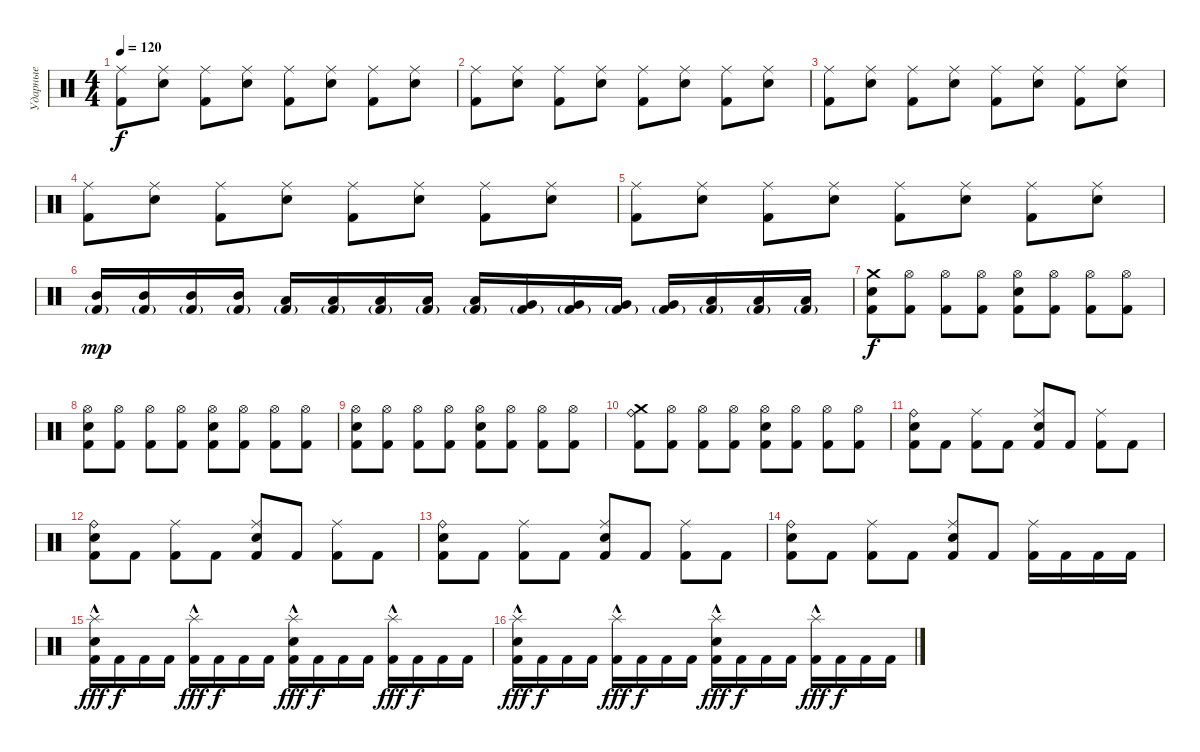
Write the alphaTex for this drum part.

\track ("Ударные" "Ударные") {instrument percussion}
\staff {score}
\articulation defaults
\ts (4 4)
\tempo 120
\clef neutral
\ks c
("Kick (hit) 2" "Ride (middle)").8{dy f} ("Electric Snare (hit)" "Ride (middle)").8 ("Kick (hit) 2" "Ride (middle)").8 ("Electric Snare (hit)" "Ride (middle)").8 ("Kick (hit) 2" "Ride (middle)").8 ("Electric Snare (hit)" "Ride (middle)").8 ("Kick (hit) 2" "Ride (middle)").8 ("Electric Snare (hit)" "Ride (middle)").8 |
("Kick (hit) 2" "Ride (middle)").8 ("Electric Snare (hit)" "Ride (middle)").8 ("Kick (hit) 2" "Ride (middle)").8 ("Electric Snare (hit)" "Ride (middle)").8 ("Kick (hit) 2" "Ride (middle)").8 ("Electric Snare (hit)" "Ride (middle)").8 ("Kick (hit) 2" "Ride (middle)").8 ("Electric Snare (hit)" "Ride (middle)").8 |
("Kick (hit) 2" "Ride (middle)").8 ("Electric Snare (hit)" "Ride (middle)").8 ("Kick (hit) 2" "Ride (middle)").8 ("Electric Snare (hit)" "Ride (middle)").8 ("Kick (hit) 2" "Ride (middle)").8 ("Electric Snare (hit)" "Ride (middle)").8 ("Kick (hit) 2" "Ride (middle)").8 ("Electric Snare (hit)" "Ride (middle)").8 |
("Kick (hit) 2" "Ride (middle)").8 ("Electric Snare (hit)" "Ride (middle)").8 ("Kick (hit) 2" "Ride (middle)").8 ("Electric Snare (hit)" "Ride (middle)").8 ("Kick (hit) 2" "Ride (middle)").8 ("Electric Snare (hit)" "Ride (middle)").8 ("Kick (hit) 2" "Ride (middle)").8 ("Electric Snare (hit)" "Ride (middle)").8 |
("Kick (hit) 2" "Ride (middle)").8 ("Electric Snare (hit)" "Ride (middle)").8 ("Kick (hit) 2" "Ride (middle)").8 ("Electric Snare (hit)" "Ride (middle)").8 ("Kick (hit) 2" "Ride (middle)").8 ("Electric Snare (hit)" "Ride (middle)").8 ("Kick (hit) 2" "Ride (middle)").8 ("Electric Snare (hit)" "Ride (middle)").8 |
("Mid Tom (hit)" "Kick (hit) 2"{g}).16{dy mp} ("Mid Tom (hit)" "Kick (hit) 2"{g}).16 ("Mid Tom (hit)" "Kick (hit) 2"{g}).16 ("Mid Tom (hit)" "Kick (hit) 2"{g}).16 ("Low Tom (hit)" "Kick (hit) 2"{g}).16 ("Low Tom (hit)" "Kick (hit) 2"{g}).16 ("Low Tom (hit)" "Kick (hit) 2"{g}).16 ("Low Tom (hit)" "Kick (hit) 2"{g}).16 ("Low Tom (hit)" "Kick (hit) 2"{g}).16 ("Very Low Tom (hit)" "Kick (hit) 2"{g}).16 ("Very Low Tom (hit)" "Kick (hit) 2"{g}).16 ("Very Low Tom (hit)" "Kick (hit) 2"{g}).16 ("Very Low Tom (hit)" "Kick (hit) 2"{g}).16 ("Low Floor Tom (hit)" "Kick (hit) 2"{g}).16 ("Low Floor Tom (hit)" "Kick (hit) 2"{g}).16 ("Low Floor Tom (hit)" "Kick (hit) 2"{g}).16 |
("Electric Snare (hit)" "Kick (hit) 2" "Crash medium (hit)").8{dy f} ("Kick (hit) 2" "Hi-Hat (open)").8 ("Kick (hit) 2" "Hi-Hat (open)").8 ("Kick (hit) 2" "Hi-Hat (open)").8 ("Electric Snare (hit)" "Kick (hit) 2" "Hi-Hat (open)").8 ("Kick (hit) 2" "Hi-Hat (open)").8 ("Kick (hit) 2" "Hi-Hat (open)").8 ("Kick (hit) 2" "Hi-Hat (open)").8 |
("Electric Snare (hit)" "Kick (hit) 2" "Hi-Hat (open)").8 ("Kick (hit) 2" "Hi-Hat (open)").8 ("Kick (hit) 2" "Hi-Hat (open)").8 ("Kick (hit) 2" "Hi-Hat (open)").8 ("Electric Snare (hit)" "Kick (hit) 2" "Hi-Hat (open)").8 ("Kick (hit) 2" "Hi-Hat (open)").8 ("Kick (hit) 2" "Hi-Hat (open)").8 ("Kick (hit) 2" "Hi-Hat (open)").8 |
("Electric Snare (hit)" "Kick (hit) 2" "Hi-Hat (open)").8 ("Kick (hit) 2" "Hi-Hat (open)").8 ("Kick (hit) 2" "Hi-Hat (open)").8 ("Kick (hit) 2" "Hi-Hat (open)").8 ("Electric Snare (hit)" "Kick (hit) 2" "Hi-Hat (open)").8 ("Kick (hit) 2" "Hi-Hat (open)").8 ("Kick (hit) 2" "Hi-Hat (open)").8 ("Kick (hit) 2" "Hi-Hat (open)").8 |
("Kick (hit) 2" "Crash medium (hit)" "Ride (bell)").8 ("Kick (hit) 2" "Hi-Hat (open)").8 ("Kick (hit) 2" "Hi-Hat (open)").8 ("Kick (hit) 2" "Hi-Hat (open)").8 ("Electric Snare (hit)" "Kick (hit) 2" "Hi-Hat (open)").8 ("Kick (hit) 2" "Hi-Hat (open)").8 ("Kick (hit) 2" "Hi-Hat (open)").8 ("Kick (hit) 2" "Hi-Hat (open)").8 |
("Electric Snare (hit)" "Kick (hit) 2" "Ride (bell)").8 "Kick (hit) 2".8 ("Kick (hit) 2" "Ride (middle)").8 "Kick (hit) 2".8 ("Electric Snare (hit)" "Kick (hit) 2" "Ride (middle)").8 "Kick (hit) 2".8 ("Kick (hit) 2" "Ride (middle)").8 "Kick (hit) 2".8 |
("Electric Snare (hit)" "Kick (hit) 2" "Ride (bell)").8 "Kick (hit) 2".8 ("Kick (hit) 2" "Ride (middle)").8 "Kick (hit) 2".8 ("Electric Snare (hit)" "Kick (hit) 2" "Ride (middle)").8 "Kick (hit) 2".8 ("Kick (hit) 2" "Ride (middle)").8 "Kick (hit) 2".8 |
("Electric Snare (hit)" "Kick (hit) 2" "Ride (bell)").8 "Kick (hit) 2".8 ("Kick (hit) 2" "Ride (middle)").8 "Kick (hit) 2".8 ("Electric Snare (hit)" "Kick (hit) 2" "Ride (middle)").8 "Kick (hit) 2".8 ("Kick (hit) 2" "Ride (middle)").8 "Kick (hit) 2".8 |
("Electric Snare (hit)" "Kick (hit) 2" "Ride (bell)").8 "Kick (hit) 2".8 ("Kick (hit) 2" "Ride (middle)").8 "Kick (hit) 2".8 ("Electric Snare (hit)" "Kick (hit) 2" "Ride (middle)").8 "Kick (hit) 2".8 ("Kick (hit) 2" "Ride (middle)").16 "Kick (hit) 2".16 "Kick (hit) 2".16 "Kick (hit) 2".16 |
("Electric Snare (hit)" "Kick (hit) 2" "Splash (hit)"{hac}).16{dy fff} "Kick (hit) 2".16{dy f} "Kick (hit) 2".16 "Kick (hit) 2".16 ("Kick (hit) 2" "Splash (hit)"{hac}).16{dy fff} "Kick (hit) 2".16{dy f} "Kick (hit) 2".16 "Kick (hit) 2".16 ("Electric Snare (hit)" "Kick (hit) 2" "Splash (hit)"{hac}).16{dy fff} "Kick (hit) 2".16{dy f} "Kick (hit) 2".16 "Kick (hit) 2".16 ("Kick (hit) 2" "Splash (hit)"{hac}).16{dy fff} "Kick (hit) 2".16{dy f} "Kick (hit) 2".16 "Kick (hit) 2".16 |
("Electric Snare (hit)" "Kick (hit) 2" "Splash (hit)"{hac}).16{dy fff} "Kick (hit) 2".16{dy f} "Kick (hit) 2".16 "Kick (hit) 2".16 ("Kick (hit) 2" "Splash (hit)"{hac}).16{dy fff} "Kick (hit) 2".16{dy f} "Kick (hit) 2".16 "Kick (hit) 2".16 ("Electric Snare (hit)" "Kick (hit) 2" "Splash (hit)"{hac}).16{dy fff} "Kick (hit) 2".16{dy f} "Kick (hit) 2".16 "Kick (hit) 2".16 ("Kick (hit) 2" "Splash (hit)"{hac}).16{dy fff} "Kick (hit) 2".16{dy f} "Kick (hit) 2".16 "Kick (hit) 2".16
